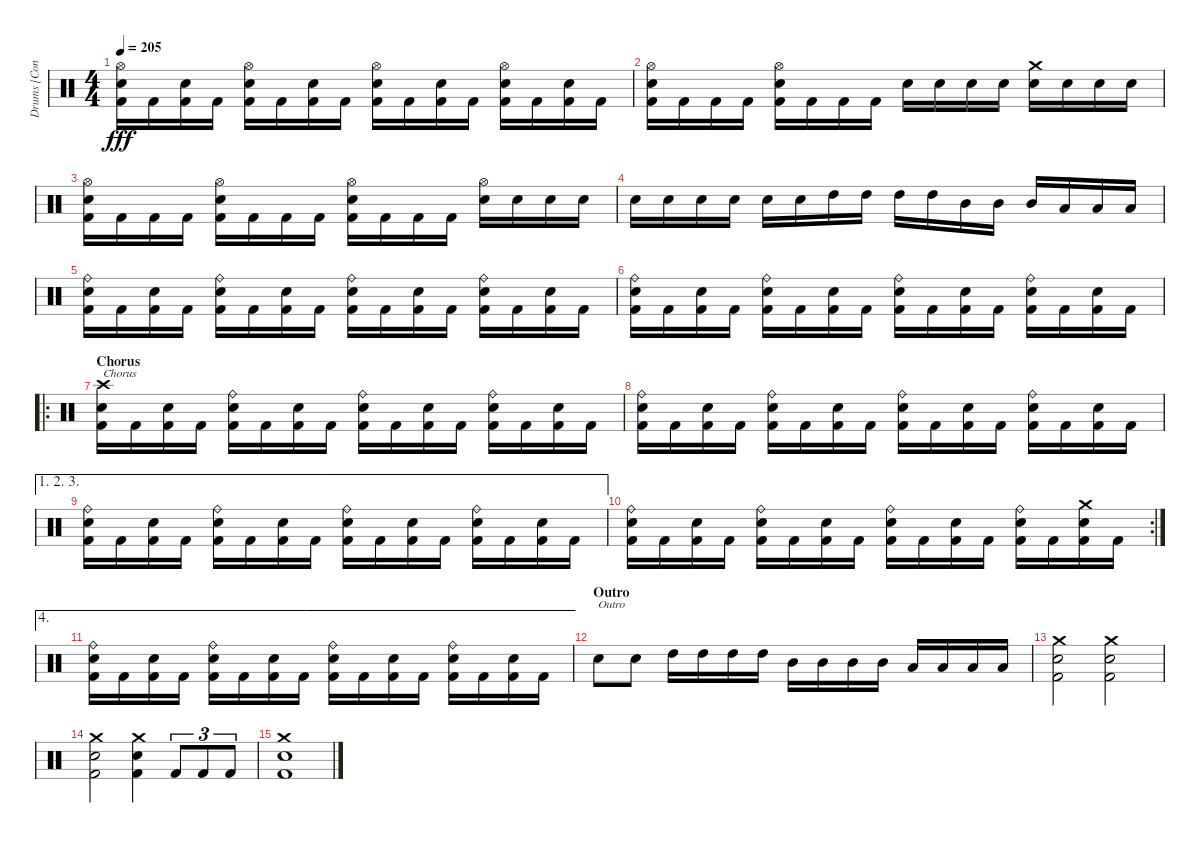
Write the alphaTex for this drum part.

\track ("Drums [Conny Peterson]" "Drums [Con") {instrument percussion}
\staff {score}
\articulation defaults
\ts (4 4)
\tempo 205
\clef neutral
\ks c
("Hi-Hat (open)" "Electric Snare (hit)" "Kick (hit) 2").16{dy fff} "Kick (hit) 2".16 ("Electric Snare (hit)" "Kick (hit) 2").16 "Kick (hit) 2".16 ("Hi-Hat (open)" "Electric Snare (hit)" "Kick (hit) 2").16 "Kick (hit) 2".16 ("Electric Snare (hit)" "Kick (hit) 2").16 "Kick (hit) 2".16 ("Hi-Hat (open)" "Electric Snare (hit)" "Kick (hit) 2").16 "Kick (hit) 2".16 ("Electric Snare (hit)" "Kick (hit) 2").16 "Kick (hit) 2".16 ("Hi-Hat (open)" "Electric Snare (hit)" "Kick (hit) 2").16 "Kick (hit) 2".16 ("Electric Snare (hit)" "Kick (hit) 2").16 "Kick (hit) 2".16 |
("Hi-Hat (open)" "Electric Snare (hit)" "Kick (hit) 2").16 "Kick (hit) 2".16 "Kick (hit) 2".16 "Kick (hit) 2".16 ("Hi-Hat (open)" "Electric Snare (hit)" "Kick (hit) 2").16 "Kick (hit) 2".16 "Kick (hit) 2".16 "Kick (hit) 2".16 "Electric Snare (hit)".16 "Electric Snare (hit)".16 "Electric Snare (hit)".16 "Electric Snare (hit)".16 ("Crash medium (hit)" "Electric Snare (hit)").16 "Electric Snare (hit)".16 "Electric Snare (hit)".16 "Electric Snare (hit)".16 |
("Hi-Hat (open)" "Electric Snare (hit)" "Kick (hit) 2").16 "Kick (hit) 2".16 "Kick (hit) 2".16 "Kick (hit) 2".16 ("Hi-Hat (open)" "Electric Snare (hit)" "Kick (hit) 2").16 "Kick (hit) 2".16 "Kick (hit) 2".16 "Kick (hit) 2".16 ("Hi-Hat (open)" "Electric Snare (hit)" "Kick (hit) 2").16 "Kick (hit) 2".16 "Kick (hit) 2".16 "Kick (hit) 2".16 ("Hi-Hat (open)" "Electric Snare (hit)").16 "Electric Snare (hit)".16 "Electric Snare (hit)".16 "Electric Snare (hit)".16 |
"Electric Snare (hit)".16 "Electric Snare (hit)".16 "Electric Snare (hit)".16 "Electric Snare (hit)".16 "Electric Snare (hit)".16 "Electric Snare (hit)".16 "High Tom (hit)".16 "High Tom (hit)".16 "High Tom (hit)".16 "High Tom (hit)".16 "Mid Tom (hit)".16 "Mid Tom (hit)".16 "Mid Tom (hit)".16 "Low Tom (hit)".16 "Low Tom (hit)".16 "Low Tom (hit)".16 |
("Ride (bell)" "Electric Snare (hit)" "Kick (hit) 2").16 "Kick (hit) 2".16 ("Electric Snare (hit)" "Kick (hit) 2").16 "Kick (hit) 2".16 ("Ride (bell)" "Electric Snare (hit)" "Kick (hit) 2").16 "Kick (hit) 2".16 ("Electric Snare (hit)" "Kick (hit) 2").16 "Kick (hit) 2".16 ("Ride (bell)" "Electric Snare (hit)" "Kick (hit) 2").16 "Kick (hit) 2".16 ("Electric Snare (hit)" "Kick (hit) 2").16 "Kick (hit) 2".16 ("Ride (bell)" "Electric Snare (hit)" "Kick (hit) 2").16 "Kick (hit) 2".16 ("Electric Snare (hit)" "Kick (hit) 2").16 "Kick (hit) 2".16 |
("Ride (bell)" "Electric Snare (hit)" "Kick (hit) 2").16 "Kick (hit) 2".16 ("Electric Snare (hit)" "Kick (hit) 2").16 "Kick (hit) 2".16 ("Ride (bell)" "Electric Snare (hit)" "Kick (hit) 2").16 "Kick (hit) 2".16 ("Electric Snare (hit)" "Kick (hit) 2").16 "Kick (hit) 2".16 ("Ride (bell)" "Electric Snare (hit)" "Kick (hit) 2").16 "Kick (hit) 2".16 ("Electric Snare (hit)" "Kick (hit) 2").16 "Kick (hit) 2".16 ("Ride (bell)" "Electric Snare (hit)" "Kick (hit) 2").16 "Kick (hit) 2".16 ("Electric Snare (hit)" "Kick (hit) 2").16 "Kick (hit) 2".16 |
\ro
\section ("" "Chorus")
("Crash high (hit)" "Electric Snare (hit)" "Kick (hit) 2").16{txt "Chorus"} "Kick (hit) 2".16 ("Electric Snare (hit)" "Kick (hit) 2").16 "Kick (hit) 2".16 ("Ride (bell)" "Electric Snare (hit)" "Kick (hit) 2").16 "Kick (hit) 2".16 ("Electric Snare (hit)" "Kick (hit) 2").16 "Kick (hit) 2".16 ("Ride (bell)" "Electric Snare (hit)" "Kick (hit) 2").16 "Kick (hit) 2".16 ("Electric Snare (hit)" "Kick (hit) 2").16 "Kick (hit) 2".16 ("Ride (bell)" "Electric Snare (hit)" "Kick (hit) 2").16 "Kick (hit) 2".16 ("Electric Snare (hit)" "Kick (hit) 2").16 "Kick (hit) 2".16 |
("Ride (bell)" "Electric Snare (hit)" "Kick (hit) 2").16 "Kick (hit) 2".16 ("Electric Snare (hit)" "Kick (hit) 2").16 "Kick (hit) 2".16 ("Ride (bell)" "Electric Snare (hit)" "Kick (hit) 2").16 "Kick (hit) 2".16 ("Electric Snare (hit)" "Kick (hit) 2").16 "Kick (hit) 2".16 ("Ride (bell)" "Electric Snare (hit)" "Kick (hit) 2").16 "Kick (hit) 2".16 ("Electric Snare (hit)" "Kick (hit) 2").16 "Kick (hit) 2".16 ("Ride (bell)" "Electric Snare (hit)" "Kick (hit) 2").16 "Kick (hit) 2".16 ("Electric Snare (hit)" "Kick (hit) 2").16 "Kick (hit) 2".16 |
\ae (1 2 3)
("Ride (bell)" "Electric Snare (hit)" "Kick (hit) 2").16 "Kick (hit) 2".16 ("Electric Snare (hit)" "Kick (hit) 2").16 "Kick (hit) 2".16 ("Ride (bell)" "Electric Snare (hit)" "Kick (hit) 2").16 "Kick (hit) 2".16 ("Electric Snare (hit)" "Kick (hit) 2").16 "Kick (hit) 2".16 ("Ride (bell)" "Electric Snare (hit)" "Kick (hit) 2").16 "Kick (hit) 2".16 ("Electric Snare (hit)" "Kick (hit) 2").16 "Kick (hit) 2".16 ("Ride (bell)" "Electric Snare (hit)" "Kick (hit) 2").16 "Kick (hit) 2".16 ("Electric Snare (hit)" "Kick (hit) 2").16 "Kick (hit) 2".16 |
\rc 2
("Ride (bell)" "Electric Snare (hit)" "Kick (hit) 2").16 "Kick (hit) 2".16 ("Electric Snare (hit)" "Kick (hit) 2").16 "Kick (hit) 2".16 ("Ride (bell)" "Electric Snare (hit)" "Kick (hit) 2").16 "Kick (hit) 2".16 ("Electric Snare (hit)" "Kick (hit) 2").16 "Kick (hit) 2".16 ("Ride (bell)" "Electric Snare (hit)" "Kick (hit) 2").16 "Kick (hit) 2".16 ("Electric Snare (hit)" "Kick (hit) 2").16 "Kick (hit) 2".16 ("Ride (bell)" "Electric Snare (hit)" "Kick (hit) 2").16 "Kick (hit) 2".16 ("Crash medium (hit)" "Electric Snare (hit)" "Kick (hit) 2").16 "Kick (hit) 2".16 |
\ae 4
("Ride (bell)" "Electric Snare (hit)" "Kick (hit) 2").16 "Kick (hit) 2".16 ("Electric Snare (hit)" "Kick (hit) 2").16 "Kick (hit) 2".16 ("Ride (bell)" "Electric Snare (hit)" "Kick (hit) 2").16 "Kick (hit) 2".16 ("Electric Snare (hit)" "Kick (hit) 2").16 "Kick (hit) 2".16 ("Ride (bell)" "Electric Snare (hit)" "Kick (hit) 2").16 "Kick (hit) 2".16 ("Electric Snare (hit)" "Kick (hit) 2").16 "Kick (hit) 2".16 ("Ride (bell)" "Electric Snare (hit)" "Kick (hit) 2").16 "Kick (hit) 2".16 ("Electric Snare (hit)" "Kick (hit) 2").16 "Kick (hit) 2".16 |
\section ("" "Outro")
"Electric Snare (hit)".8{txt "Outro"} "Electric Snare (hit)".8 "High Tom (hit)".16 "High Tom (hit)".16 "High Tom (hit)".16 "High Tom (hit)".16 "Mid Tom (hit)".16 "Mid Tom (hit)".16 "Mid Tom (hit)".16 "Mid Tom (hit)".16 "Low Tom (hit)".16 "Low Tom (hit)".16 "Low Tom (hit)".16 "Low Tom (hit)".16 |
("Crash medium (hit)" "Electric Snare (hit)" "Kick (hit) 2").2 ("Crash medium (hit)" "Electric Snare (hit)" "Kick (hit) 2").2 |
("Crash medium (hit)" "Electric Snare (hit)" "Kick (hit) 2").2 ("Crash medium (hit)" "Electric Snare (hit)" "Kick (hit) 2").4 "Kick (hit) 2".8{tu (3 2)} "Kick (hit) 2".8{tu (3 2)} "Kick (hit) 2".8{tu (3 2)} |
("Crash medium (hit)" "Electric Snare (hit)" "Kick (hit) 2").1
